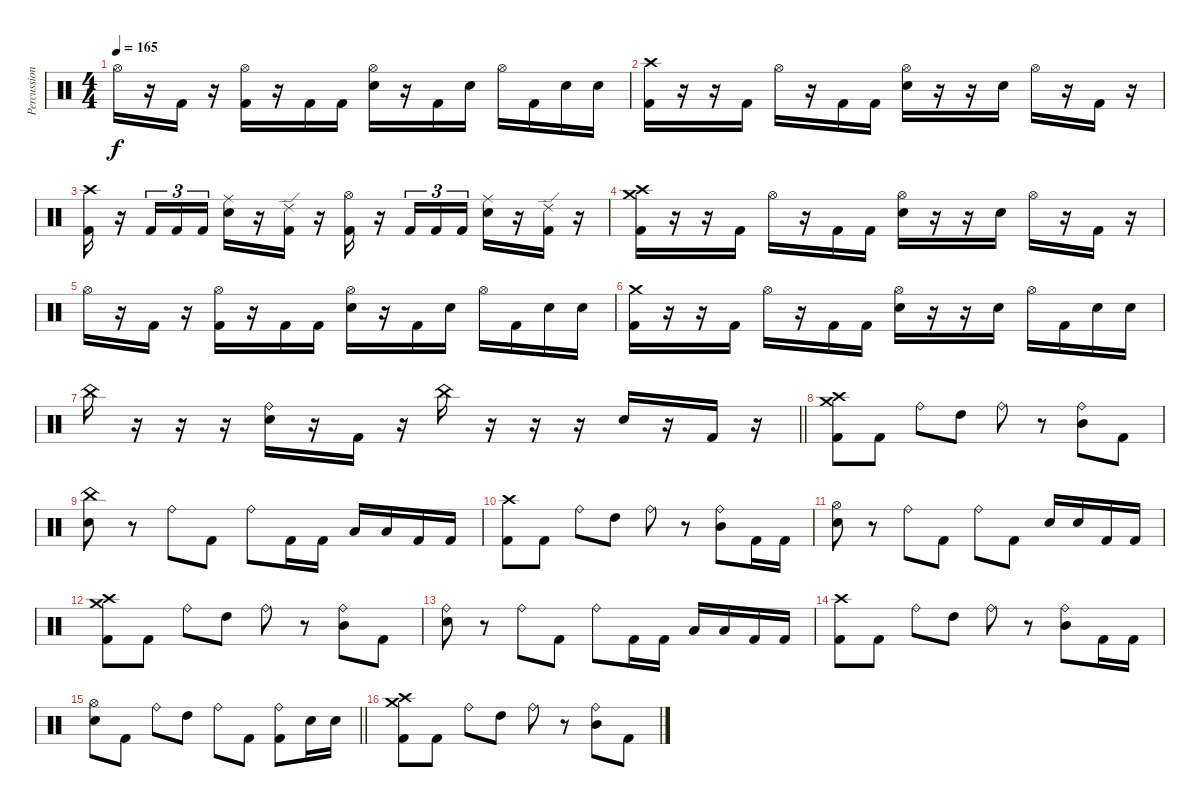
\track ("Percussion" "Percussion") {instrument percussion}
\staff {score}
\articulation defaults
\ts (4 4)
\tempo 165
\clef neutral
\ks c "Hi-Hat (open)".16{dy f}
r.16 "Kick (hit) 2".16 r.16 ("Hi-Hat (open)" "Kick (hit) 2").16 r.16 "Kick (hit) 2".16 "Kick (hit) 2".16 ("Hi-Hat (open)" "Snare (hit) 2").16 r.16 "Kick (hit) 2".16 "Snare (hit) 2".16 "Hi-Hat (open)".16 "Kick (hit) 2".16 "Snare (hit) 2".16 "Snare (hit) 2".16 |
("Crash high (hit)" "Kick (hit) 2").16 r.16 r.16 "Kick (hit) 2".16 "Hi-Hat (open)".16 r.16 "Kick (hit) 2".16 "Kick (hit) 2".16 ("Hi-Hat (open)" "Snare (hit) 2").16 r.16 r.16 "Snare (hit) 2".16 "Hi-Hat (open)".16 r.16 "Kick (hit) 2".16 r.16 |
("Crash high (hit)" "Kick (hit) 2").16 r.16 "Kick (hit) 2".16{tu (3 2)} "Kick (hit) 2".16{tu (3 2)} "Kick (hit) 2".16{tu (3 2)} ("Ride (middle)" "Snare (hit) 2").16 r.16 ("Ride (edge) 2" "Kick (hit) 2").16 r.16 ("Hi-Hat (open)" "Kick (hit) 2").16 r.16 "Kick (hit) 2".16{tu (3 2)} "Kick (hit) 2".16{tu (3 2)} "Kick (hit) 2".16{tu (3 2)} ("Ride (middle)" "Snare (hit) 2").16 r.16 ("Ride (edge) 2" "Kick (hit) 2").16 r.16 |
("Crash high (hit)" "Crash medium (hit)" "Kick (hit) 2").16 r.16 r.16 "Kick (hit) 2".16 "Hi-Hat (open)".16 r.16 "Kick (hit) 2".16 "Kick (hit) 2".16 ("Hi-Hat (open)" "Snare (hit) 2").16 r.16 r.16 "Snare (hit) 2".16 "Hi-Hat (open)".16 r.16 "Kick (hit) 2".16 r.16 |
"Hi-Hat (open)".16 r.16 "Kick (hit) 2".16 r.16 ("Hi-Hat (open)" "Kick (hit) 2").16 r.16 "Kick (hit) 2".16 "Kick (hit) 2".16 ("Hi-Hat (open)" "Snare (hit) 2").16 r.16 "Kick (hit) 2".16 "Snare (hit) 2".16 "Hi-Hat (open)".16 "Kick (hit) 2".16 "Snare (hit) 2".16 "Snare (hit) 2".16 |
("Crash medium (hit)" "Kick (hit) 2").16 r.16 r.16 "Kick (hit) 2".16 "Hi-Hat (open)".16 r.16 "Kick (hit) 2".16 "Kick (hit) 2".16 ("Hi-Hat (open)" "Snare (hit) 2").16 r.16 r.16 "Snare (hit) 2".16 "Hi-Hat (open)".16 "Kick (hit) 2".16 "Snare (hit) 2".16 "Snare (hit) 2".16 |
\barLineRight lightlight "China (hit)".16
r.16 r.16 r.16 ("Ride (bell)" "Snare (hit) 2").16 r.16 "Kick (hit) 2".16 r.16 "China (hit)".16 r.16 r.16 r.16 "Snare (hit) 2".16 r.16 "Kick (hit) 2".16 r.16 |
\section ("" "")
("Crash high (hit)" "Crash medium (hit)" "Kick (hit) 2").8 "Kick (hit) 2".8 "Ride (bell)".8 "High Tom (hit)".8 "Ride (bell)".8 r.8 ("Ride (bell)" "Mid Tom (hit)").8 "Kick (hit) 2".8 |
("China (hit)" "Snare (hit) 2").8 r.8 "Ride (bell)".8 "Kick (hit) 2".8 "Ride (bell)".8 "Kick (hit) 2".16 "Kick (hit) 2".16 "Low Tom (hit)".16 "Low Tom (hit)".16 "Kick (hit) 2".16 "Kick (hit) 2".16 |
("Crash high (hit)" "Kick (hit) 2").8 "Kick (hit) 2".8 "Ride (bell)".8 "High Tom (hit)".8 "Ride (bell)".8 r.8 ("Ride (bell)" "Mid Tom (hit)").8 "Kick (hit) 2".16 "Kick (hit) 2".16 |
("Hi-Hat (open)" "Snare (hit) 2").8 r.8 "Ride (bell)".8 "Kick (hit) 2".8 "Ride (bell)".8 "Kick (hit) 2".8 "Snare (hit) 2".16 "Snare (hit) 2".16 "Kick (hit) 2".16 "Kick (hit) 2".16 |
("Crash high (hit)" "Crash medium (hit)" "Kick (hit) 2").8 "Kick (hit) 2".8 "Ride (bell)".8 "High Tom (hit)".8 "Ride (bell)".8 r.8 ("Ride (bell)" "Mid Tom (hit)").8 "Kick (hit) 2".8 |
("Ride (bell)" "Snare (hit) 2").8 r.8 "Ride (bell)".8 "Kick (hit) 2".8 "Ride (bell)".8 "Kick (hit) 2".16 "Kick (hit) 2".16 "Low Tom (hit)".16 "Low Tom (hit)".16 "Kick (hit) 2".16 "Kick (hit) 2".16 |
("Crash high (hit)" "Kick (hit) 2").8 "Kick (hit) 2".8 "Ride (bell)".8 "High Tom (hit)".8 "Ride (bell)".8 r.8 ("Ride (bell)" "Mid Tom (hit)").8 "Kick (hit) 2".16 "Kick (hit) 2".16 |
\barLineRight lightlight
("Hi-Hat (open)" "Snare (hit) 2").8 "Kick (hit) 2".8 "Ride (bell)".8 "High Tom (hit)".8 "Ride (bell)".8 "Kick (hit) 2".8 ("Ride (bell)" "Kick (hit) 2").8 "Snare (hit) 2".16 "Snare (hit) 2".16 |
("Crash high (hit)" "Crash medium (hit)" "Kick (hit) 2").8 "Kick (hit) 2".8 "Ride (bell)".8 "High Tom (hit)".8 "Ride (bell)".8 r.8 ("Ride (bell)" "Mid Tom (hit)").8 "Kick (hit) 2".8
